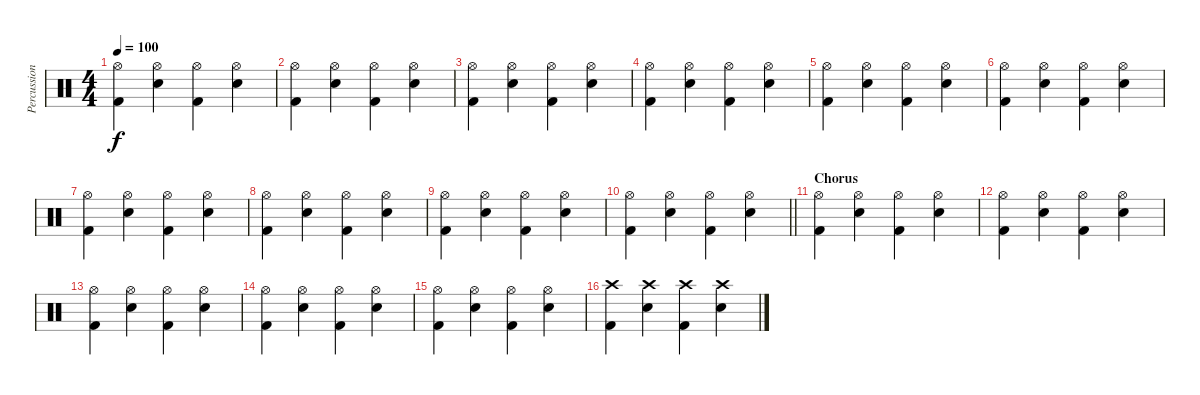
\track ("Percussion" "Percussion") {instrument percussion}
\staff {score}
\articulation defaults
\ts (4 4)
\tempo 100
\clef neutral
\ks c
("Hi-Hat (open)" "Kick (hit) 2").4{dy f} ("Hi-Hat (open)" "Electric Snare (hit)").4 ("Hi-Hat (open)" "Kick (hit) 2").4 ("Hi-Hat (open)" "Electric Snare (hit)").4 |
("Hi-Hat (open)" "Kick (hit) 2").4 ("Hi-Hat (open)" "Electric Snare (hit)").4 ("Hi-Hat (open)" "Kick (hit) 2").4 ("Hi-Hat (open)" "Electric Snare (hit)").4 |
("Hi-Hat (open)" "Kick (hit) 2").4 ("Hi-Hat (open)" "Electric Snare (hit)").4 ("Hi-Hat (open)" "Kick (hit) 2").4 ("Hi-Hat (open)" "Electric Snare (hit)").4 |
("Hi-Hat (open)" "Kick (hit) 2").4 ("Hi-Hat (open)" "Electric Snare (hit)").4 ("Hi-Hat (open)" "Kick (hit) 2").4 ("Hi-Hat (open)" "Electric Snare (hit)").4 |
("Hi-Hat (open)" "Kick (hit) 2").4 ("Hi-Hat (open)" "Electric Snare (hit)").4 ("Hi-Hat (open)" "Kick (hit) 2").4 ("Hi-Hat (open)" "Electric Snare (hit)").4 |
("Hi-Hat (open)" "Kick (hit) 2").4 ("Hi-Hat (open)" "Electric Snare (hit)").4 ("Hi-Hat (open)" "Kick (hit) 2").4 ("Hi-Hat (open)" "Electric Snare (hit)").4 |
("Hi-Hat (open)" "Kick (hit) 2").4 ("Hi-Hat (open)" "Electric Snare (hit)").4 ("Hi-Hat (open)" "Kick (hit) 2").4 ("Hi-Hat (open)" "Electric Snare (hit)").4 |
("Hi-Hat (open)" "Kick (hit) 2").4 ("Hi-Hat (open)" "Electric Snare (hit)").4 ("Hi-Hat (open)" "Kick (hit) 2").4 ("Hi-Hat (open)" "Electric Snare (hit)").4 |
("Hi-Hat (open)" "Kick (hit) 2").4 ("Hi-Hat (open)" "Electric Snare (hit)").4 ("Hi-Hat (open)" "Kick (hit) 2").4 ("Hi-Hat (open)" "Electric Snare (hit)").4 |
\barLineRight lightlight
("Hi-Hat (open)" "Kick (hit) 2").4 ("Hi-Hat (open)" "Electric Snare (hit)").4 ("Hi-Hat (open)" "Kick (hit) 2").4 ("Hi-Hat (open)" "Electric Snare (hit)").4 |
\section ("" "Chorus")
("Hi-Hat (open)" "Kick (hit) 2").4 ("Hi-Hat (open)" "Electric Snare (hit)").4 ("Hi-Hat (open)" "Kick (hit) 2").4 ("Hi-Hat (open)" "Electric Snare (hit)").4 |
("Hi-Hat (open)" "Kick (hit) 2").4 ("Hi-Hat (open)" "Electric Snare (hit)").4 ("Hi-Hat (open)" "Kick (hit) 2").4 ("Hi-Hat (open)" "Electric Snare (hit)").4 |
("Hi-Hat (open)" "Kick (hit) 2").4 ("Hi-Hat (open)" "Electric Snare (hit)").4 ("Hi-Hat (open)" "Kick (hit) 2").4 ("Hi-Hat (open)" "Electric Snare (hit)").4 |
("Hi-Hat (open)" "Kick (hit) 2").4 ("Hi-Hat (open)" "Electric Snare (hit)").4 ("Hi-Hat (open)" "Kick (hit) 2").4 ("Hi-Hat (open)" "Electric Snare (hit)").4 |
("Hi-Hat (open)" "Kick (hit) 2").4 ("Hi-Hat (open)" "Electric Snare (hit)").4 ("Hi-Hat (open)" "Kick (hit) 2").4 ("Hi-Hat (open)" "Electric Snare (hit)").4 |
("Crash high (hit)" "Kick (hit) 2").4 ("Crash high (hit)" "Electric Snare (hit)").4 ("Crash high (hit)" "Kick (hit) 2").4 ("Crash high (hit)" "Electric Snare (hit)").4
